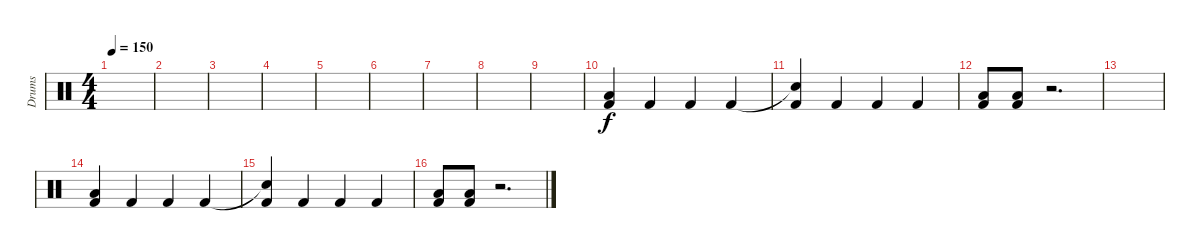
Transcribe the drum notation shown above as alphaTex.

\track ("Drums" "Drums") {instrument percussion}
\staff {score}
\articulation defaults
\ts (4 4)
\tempo 150
\clef neutral
\ks c
|
|
|
|
|
|
|
|
|
("Low Tom (hit)" "Kick (hit) 2").4 "Kick (hit) 2".4 "Kick (hit) 2".4 "Kick (hit) 2".4 |
("Snare (hit)"{t} "Kick (hit) 2").4 "Kick (hit) 2".4 "Kick (hit) 2".4 "Kick (hit) 2".4 |
("Low Tom (hit)" "Kick (hit) 2").8 ("Low Tom (hit)" "Kick (hit) 2").8 r.2{d} |
|
("Low Tom (hit)" "Kick (hit) 2").4 "Kick (hit) 2".4 "Kick (hit) 2".4 "Kick (hit) 2".4 |
("Snare (hit)"{t} "Kick (hit) 2").4 "Kick (hit) 2".4 "Kick (hit) 2".4 "Kick (hit) 2".4 |
("Low Tom (hit)" "Kick (hit) 2").8 ("Low Tom (hit)" "Kick (hit) 2").8 r.2{d}
